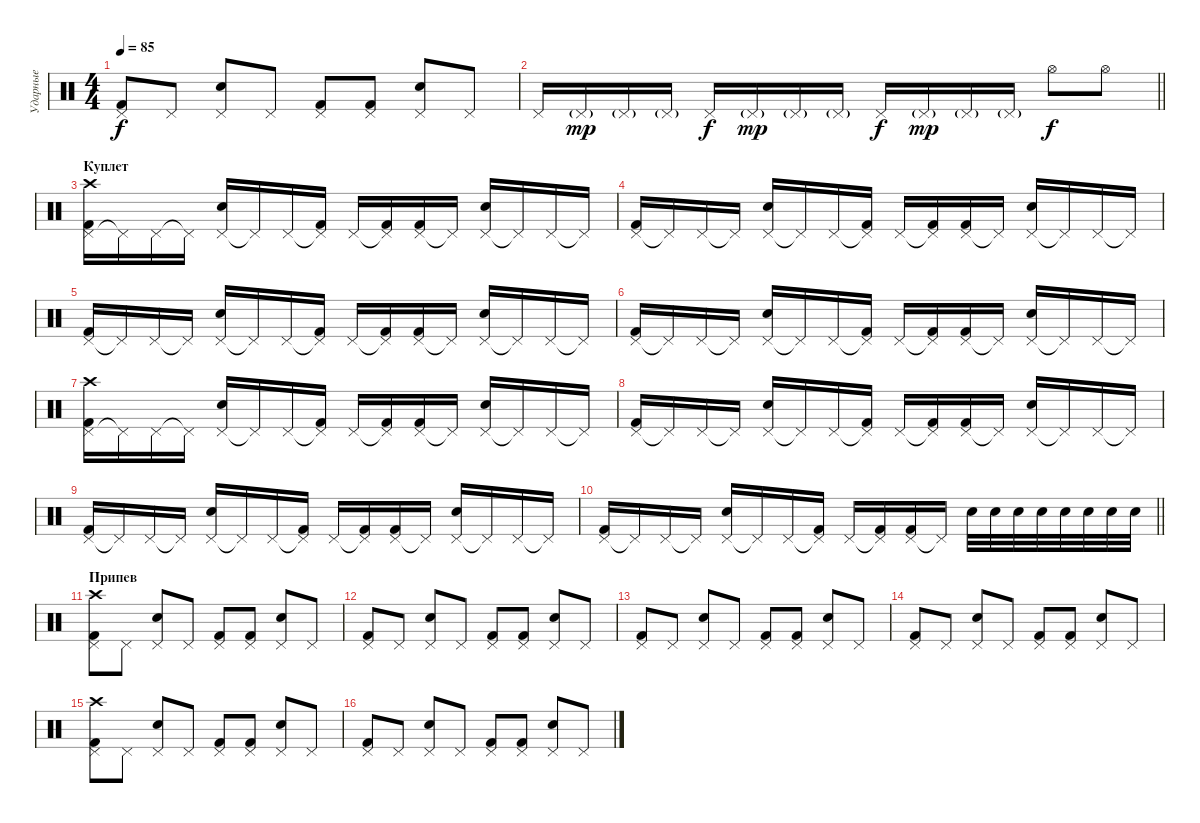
\track ("Ударные" "Ударные") {instrument percussion}
\staff {score}
\articulation defaults
\ts (4 4)
\tempo 85
\clef neutral
\ks c
("Pedal Hi-Hat (hit)" "Kick (hit) 2").8{dy f} "Pedal Hi-Hat (hit)".8 ("Pedal Hi-Hat (hit)" "Electric Snare (hit)").8 "Pedal Hi-Hat (hit)".8 ("Pedal Hi-Hat (hit)" "Kick (hit) 2").8 ("Pedal Hi-Hat (hit)" "Kick (hit) 2").8 ("Pedal Hi-Hat (hit)" "Electric Snare (hit)").8 "Pedal Hi-Hat (hit)".8 |
\barLineRight lightlight "Pedal Hi-Hat (hit)".16 "Pedal Hi-Hat (hit)"{g}.16{dy mp} "Pedal Hi-Hat (hit)"{g}.16 "Pedal Hi-Hat (hit)"{g}.16 "Pedal Hi-Hat (hit)".16{dy f} "Pedal Hi-Hat (hit)"{g}.16{dy mp} "Pedal Hi-Hat (hit)"{g}.16 "Pedal Hi-Hat (hit)"{g}.16 "Pedal Hi-Hat (hit)".16{dy f} "Pedal Hi-Hat (hit)"{g}.16{dy mp} "Pedal Hi-Hat (hit)"{g}.16 "Pedal Hi-Hat (hit)"{g}.16 "Hi-Hat (open)".8{dy f} "Hi-Hat (open)".8
|
\section ("" "Куплет")
("Pedal Hi-Hat (hit)" "Crash high (hit)" "Kick (hit) 2").16 "Pedal Hi-Hat (hit)"{t}.16 "Pedal Hi-Hat (hit)".16 "Pedal Hi-Hat (hit)"{t}.16 ("Pedal Hi-Hat (hit)" "Electric Snare (hit)").16 "Pedal Hi-Hat (hit)"{t}.16 "Pedal Hi-Hat (hit)".16 ("Pedal Hi-Hat (hit)"{t} "Kick (hit) 2").16 "Pedal Hi-Hat (hit)".16 ("Pedal Hi-Hat (hit)"{t} "Kick (hit) 2").16 ("Pedal Hi-Hat (hit)" "Kick (hit) 2").16 "Pedal Hi-Hat (hit)"{t}.16 ("Pedal Hi-Hat (hit)" "Electric Snare (hit)").16 "Pedal Hi-Hat (hit)"{t}.16 "Pedal Hi-Hat (hit)".16 "Pedal Hi-Hat (hit)"{t}.16 |
("Pedal Hi-Hat (hit)" "Kick (hit) 2").16 "Pedal Hi-Hat (hit)"{t}.16 "Pedal Hi-Hat (hit)".16 "Pedal Hi-Hat (hit)"{t}.16 ("Pedal Hi-Hat (hit)" "Electric Snare (hit)").16 "Pedal Hi-Hat (hit)"{t}.16 "Pedal Hi-Hat (hit)".16 ("Pedal Hi-Hat (hit)"{t} "Kick (hit) 2").16 "Pedal Hi-Hat (hit)".16 ("Pedal Hi-Hat (hit)"{t} "Kick (hit) 2").16 ("Pedal Hi-Hat (hit)" "Kick (hit) 2").16 "Pedal Hi-Hat (hit)"{t}.16 ("Pedal Hi-Hat (hit)" "Electric Snare (hit)").16 "Pedal Hi-Hat (hit)"{t}.16 "Pedal Hi-Hat (hit)".16 "Pedal Hi-Hat (hit)"{t}.16 |
("Pedal Hi-Hat (hit)" "Kick (hit) 2").16 "Pedal Hi-Hat (hit)"{t}.16 "Pedal Hi-Hat (hit)".16 "Pedal Hi-Hat (hit)"{t}.16 ("Pedal Hi-Hat (hit)" "Electric Snare (hit)").16 "Pedal Hi-Hat (hit)"{t}.16 "Pedal Hi-Hat (hit)".16 ("Pedal Hi-Hat (hit)"{t} "Kick (hit) 2").16 "Pedal Hi-Hat (hit)".16 ("Pedal Hi-Hat (hit)"{t} "Kick (hit) 2").16 ("Pedal Hi-Hat (hit)" "Kick (hit) 2").16 "Pedal Hi-Hat (hit)"{t}.16 ("Pedal Hi-Hat (hit)" "Electric Snare (hit)").16 "Pedal Hi-Hat (hit)"{t}.16 "Pedal Hi-Hat (hit)".16 "Pedal Hi-Hat (hit)"{t}.16 |
("Pedal Hi-Hat (hit)" "Kick (hit) 2").16 "Pedal Hi-Hat (hit)"{t}.16 "Pedal Hi-Hat (hit)".16 "Pedal Hi-Hat (hit)"{t}.16 ("Pedal Hi-Hat (hit)" "Electric Snare (hit)").16 "Pedal Hi-Hat (hit)"{t}.16 "Pedal Hi-Hat (hit)".16 ("Pedal Hi-Hat (hit)"{t} "Kick (hit) 2").16 "Pedal Hi-Hat (hit)".16 ("Pedal Hi-Hat (hit)"{t} "Kick (hit) 2").16 ("Pedal Hi-Hat (hit)" "Kick (hit) 2").16 "Pedal Hi-Hat (hit)"{t}.16 ("Pedal Hi-Hat (hit)" "Electric Snare (hit)").16 "Pedal Hi-Hat (hit)"{t}.16 "Pedal Hi-Hat (hit)".16 "Pedal Hi-Hat (hit)"{t}.16 |
("Pedal Hi-Hat (hit)" "Crash high (hit)" "Kick (hit) 2").16 "Pedal Hi-Hat (hit)"{t}.16 "Pedal Hi-Hat (hit)".16 "Pedal Hi-Hat (hit)"{t}.16 ("Pedal Hi-Hat (hit)" "Electric Snare (hit)").16 "Pedal Hi-Hat (hit)"{t}.16 "Pedal Hi-Hat (hit)".16 ("Pedal Hi-Hat (hit)"{t} "Kick (hit) 2").16 "Pedal Hi-Hat (hit)".16 ("Pedal Hi-Hat (hit)"{t} "Kick (hit) 2").16 ("Pedal Hi-Hat (hit)" "Kick (hit) 2").16 "Pedal Hi-Hat (hit)"{t}.16 ("Pedal Hi-Hat (hit)" "Electric Snare (hit)").16 "Pedal Hi-Hat (hit)"{t}.16 "Pedal Hi-Hat (hit)".16 "Pedal Hi-Hat (hit)"{t}.16 |
("Pedal Hi-Hat (hit)" "Kick (hit) 2").16 "Pedal Hi-Hat (hit)"{t}.16 "Pedal Hi-Hat (hit)".16 "Pedal Hi-Hat (hit)"{t}.16 ("Pedal Hi-Hat (hit)" "Electric Snare (hit)").16 "Pedal Hi-Hat (hit)"{t}.16 "Pedal Hi-Hat (hit)".16 ("Pedal Hi-Hat (hit)"{t} "Kick (hit) 2").16 "Pedal Hi-Hat (hit)".16 ("Pedal Hi-Hat (hit)"{t} "Kick (hit) 2").16 ("Pedal Hi-Hat (hit)" "Kick (hit) 2").16 "Pedal Hi-Hat (hit)"{t}.16 ("Pedal Hi-Hat (hit)" "Electric Snare (hit)").16 "Pedal Hi-Hat (hit)"{t}.16 "Pedal Hi-Hat (hit)".16 "Pedal Hi-Hat (hit)"{t}.16 |
("Pedal Hi-Hat (hit)" "Kick (hit) 2").16 "Pedal Hi-Hat (hit)"{t}.16 "Pedal Hi-Hat (hit)".16 "Pedal Hi-Hat (hit)"{t}.16 ("Pedal Hi-Hat (hit)" "Electric Snare (hit)").16 "Pedal Hi-Hat (hit)"{t}.16 "Pedal Hi-Hat (hit)".16 ("Pedal Hi-Hat (hit)"{t} "Kick (hit) 2").16 "Pedal Hi-Hat (hit)".16 ("Pedal Hi-Hat (hit)"{t} "Kick (hit) 2").16 ("Pedal Hi-Hat (hit)" "Kick (hit) 2").16 "Pedal Hi-Hat (hit)"{t}.16 ("Pedal Hi-Hat (hit)" "Electric Snare (hit)").16 "Pedal Hi-Hat (hit)"{t}.16 "Pedal Hi-Hat (hit)".16 "Pedal Hi-Hat (hit)"{t}.16 |
\barLineRight lightlight
("Pedal Hi-Hat (hit)" "Kick (hit) 2").16 "Pedal Hi-Hat (hit)"{t}.16 "Pedal Hi-Hat (hit)".16 "Pedal Hi-Hat (hit)"{t}.16 ("Pedal Hi-Hat (hit)" "Electric Snare (hit)").16 "Pedal Hi-Hat (hit)"{t}.16 "Pedal Hi-Hat (hit)".16 ("Pedal Hi-Hat (hit)"{t} "Kick (hit) 2").16 "Pedal Hi-Hat (hit)".16 ("Pedal Hi-Hat (hit)"{t} "Kick (hit) 2").16 ("Pedal Hi-Hat (hit)" "Kick (hit) 2").16 "Pedal Hi-Hat (hit)"{t}.16 "Electric Snare (hit)".32 "Electric Snare (hit)".32 "Electric Snare (hit)".32 "Electric Snare (hit)".32 "Electric Snare (hit)".32 "Electric Snare (hit)".32 "Electric Snare (hit)".32 "Electric Snare (hit)".32 |
\section ("" "Припев")
("Pedal Hi-Hat (hit)" "Crash high (hit)" "Kick (hit) 2").8 "Pedal Hi-Hat (hit)".8 ("Pedal Hi-Hat (hit)" "Electric Snare (hit)").8 "Pedal Hi-Hat (hit)".8 ("Pedal Hi-Hat (hit)" "Kick (hit) 2").8 ("Pedal Hi-Hat (hit)" "Kick (hit) 2").8 ("Pedal Hi-Hat (hit)" "Electric Snare (hit)").8 "Pedal Hi-Hat (hit)".8 |
("Pedal Hi-Hat (hit)" "Kick (hit) 2").8 "Pedal Hi-Hat (hit)".8 ("Pedal Hi-Hat (hit)" "Electric Snare (hit)").8 "Pedal Hi-Hat (hit)".8 ("Pedal Hi-Hat (hit)" "Kick (hit) 2").8 ("Pedal Hi-Hat (hit)" "Kick (hit) 2").8 ("Pedal Hi-Hat (hit)" "Electric Snare (hit)").8 "Pedal Hi-Hat (hit)".8 |
("Pedal Hi-Hat (hit)" "Kick (hit) 2").8 "Pedal Hi-Hat (hit)".8 ("Pedal Hi-Hat (hit)" "Electric Snare (hit)").8 "Pedal Hi-Hat (hit)".8 ("Pedal Hi-Hat (hit)" "Kick (hit) 2").8 ("Pedal Hi-Hat (hit)" "Kick (hit) 2").8 ("Pedal Hi-Hat (hit)" "Electric Snare (hit)").8 "Pedal Hi-Hat (hit)".8 |
("Pedal Hi-Hat (hit)" "Kick (hit) 2").8 "Pedal Hi-Hat (hit)".8 ("Pedal Hi-Hat (hit)" "Electric Snare (hit)").8 "Pedal Hi-Hat (hit)".8 ("Pedal Hi-Hat (hit)" "Kick (hit) 2").8 ("Pedal Hi-Hat (hit)" "Kick (hit) 2").8 ("Pedal Hi-Hat (hit)" "Electric Snare (hit)").8 "Pedal Hi-Hat (hit)".8 |
("Pedal Hi-Hat (hit)" "Crash high (hit)" "Kick (hit) 2").8 "Pedal Hi-Hat (hit)".8 ("Pedal Hi-Hat (hit)" "Electric Snare (hit)").8 "Pedal Hi-Hat (hit)".8 ("Pedal Hi-Hat (hit)" "Kick (hit) 2").8 ("Pedal Hi-Hat (hit)" "Kick (hit) 2").8 ("Pedal Hi-Hat (hit)" "Electric Snare (hit)").8 "Pedal Hi-Hat (hit)".8 |
("Pedal Hi-Hat (hit)" "Kick (hit) 2").8 "Pedal Hi-Hat (hit)".8 ("Pedal Hi-Hat (hit)" "Electric Snare (hit)").8 "Pedal Hi-Hat (hit)".8 ("Pedal Hi-Hat (hit)" "Kick (hit) 2").8 ("Pedal Hi-Hat (hit)" "Kick (hit) 2").8 ("Pedal Hi-Hat (hit)" "Electric Snare (hit)").8 "Pedal Hi-Hat (hit)".8
